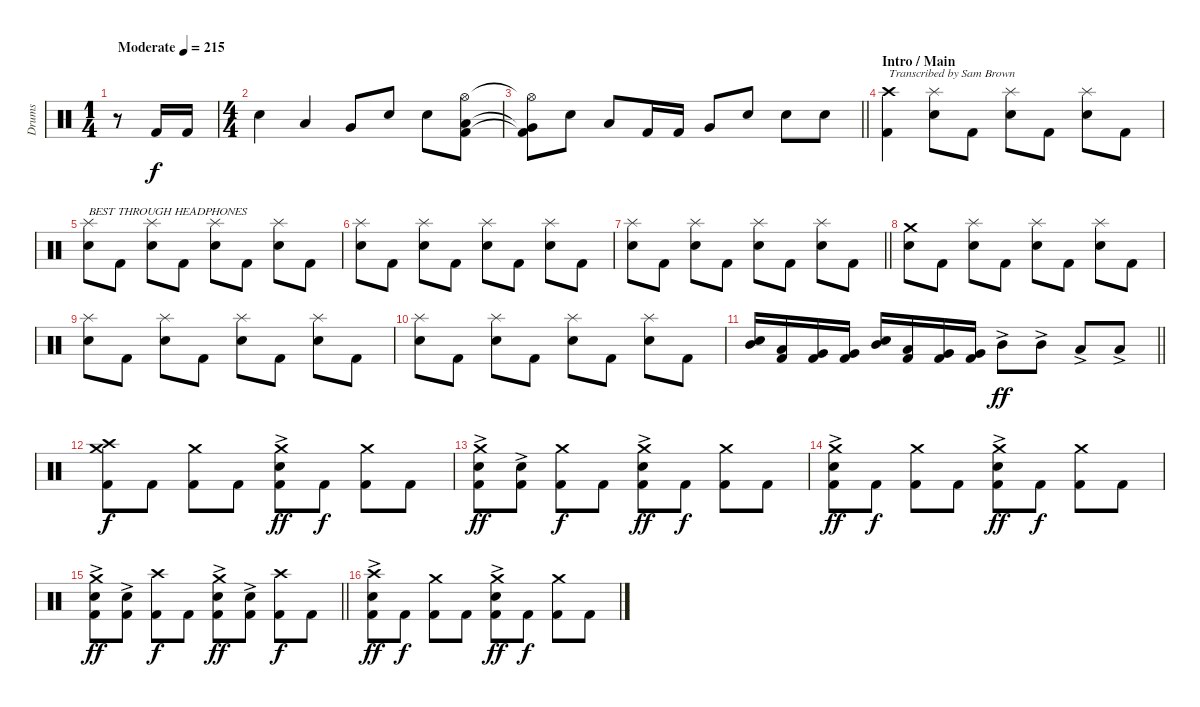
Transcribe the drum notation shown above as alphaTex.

\track ("Drums" "Drums") {instrument percussion}
\staff {score}
\articulation defaults
\ts (1 4)
\tempo (215 "Moderate")
\clef neutral
\ks c
r.8{dy f} "Kick (hit) 2".16 "Kick (hit) 2".16 |
\ts (4 4)
"Snare (hit) 2".4 "Low Tom (hit)".4 "Very Low Tom (hit)".8 "Snare (hit) 2".8 "Snare (hit) 2".8 ("Kick (hit) 2" "Low Floor Tom (hit)" "Hi-Hat (open)").8 |
\barLineRight lightlight
("Kick (hit) 2"{t} "Very Low Tom (hit)"{t} "Hi-Hat (open)"{t}).8 "Snare (hit) 2".8 "Low Tom (hit)".8 "Kick (hit) 2".16 "Kick (hit) 2".16 "Very Low Tom (hit)".8 "Snare (hit) 2".8 "Snare (hit) 2".8 "Snare (hit) 2".8 |
\section ("" "Intro / Main")
("Kick (hit) 2" "Crash high (hit)").4{txt "Transcribed by Sam Brown"} ("Snare (hit) 2" "Splash (hit)").8 "Kick (hit) 2".8 ("Snare (hit) 2" "Splash (hit)").8 "Kick (hit) 2".8 ("Snare (hit) 2" "Splash (hit)").8 "Kick (hit) 2".8 |
("Snare (hit) 2" "Splash (hit)").8{txt "BEST THROUGH HEADPHONES"} "Kick (hit) 2".8 ("Snare (hit) 2" "Splash (hit)").8 "Kick (hit) 2".8 ("Snare (hit) 2" "Splash (hit)").8 "Kick (hit) 2".8 ("Snare (hit) 2" "Splash (hit)").8 "Kick (hit) 2".8 |
("Snare (hit) 2" "Splash (hit)").8 "Kick (hit) 2".8 ("Snare (hit) 2" "Splash (hit)").8 "Kick (hit) 2".8 ("Snare (hit) 2" "Splash (hit)").8 "Kick (hit) 2".8 ("Snare (hit) 2" "Splash (hit)").8 "Kick (hit) 2".8 |
\barLineRight lightlight
("Snare (hit) 2" "Splash (hit)").8 "Kick (hit) 2".8 ("Snare (hit) 2" "Splash (hit)").8 "Kick (hit) 2".8 ("Snare (hit) 2" "Splash (hit)").8 "Kick (hit) 2".8 ("Snare (hit) 2" "Splash (hit)").8 "Kick (hit) 2".8 |
\section ("" "")
("Snare (hit) 2" "Crash medium (hit)").8 "Kick (hit) 2".8 ("Snare (hit) 2" "Splash (hit)").8 "Kick (hit) 2".8 ("Snare (hit) 2" "Splash (hit)").8 "Kick (hit) 2".8 ("Snare (hit) 2" "Splash (hit)").8 "Kick (hit) 2".8 |
("Snare (hit) 2" "Splash (hit)").8 "Kick (hit) 2".8 ("Snare (hit) 2" "Splash (hit)").8 "Kick (hit) 2".8 ("Snare (hit) 2" "Splash (hit)").8 "Kick (hit) 2".8 ("Snare (hit) 2" "Splash (hit)").8 "Kick (hit) 2".8 |
("Snare (hit) 2" "Splash (hit)").8 "Kick (hit) 2".8 ("Snare (hit) 2" "Splash (hit)").8 "Kick (hit) 2".8 ("Snare (hit) 2" "Splash (hit)").8 "Kick (hit) 2".8 ("Snare (hit) 2" "Splash (hit)").8 "Kick (hit) 2".8 |
\barLineRight lightlight
("Snare (hit) 2" "Mid Tom (hit)").16 ("Kick (hit) 2" "Low Tom (hit)").16 ("Kick (hit) 2" "Very Low Tom (hit)").16 ("Kick (hit) 2" "Very Low Tom (hit)").16 ("Snare (hit) 2" "Mid Tom (hit)").16 ("Kick (hit) 2" "Low Tom (hit)").16 ("Kick (hit) 2" "Very Low Tom (hit)").16 ("Kick (hit) 2" "Very Low Tom (hit)").16 "Mid Tom (hit)"{ac}.8{dy ff} "Mid Tom (hit)"{ac}.8 "Low Tom (hit)"{ac}.8 "Low Tom (hit)"{ac}.8 |
\section ("" "")
("Kick (hit) 2" "Crash medium (hit)" "Crash high (hit)").8{dy f} "Kick (hit) 2".8 ("Kick (hit) 2" "Crash medium (hit)").8 "Kick (hit) 2".8 ("Kick (hit) 2" "Snare (hit) 2"{ac} "Crash medium (hit)").8{dy ff} "Kick (hit) 2".8{dy f} ("Kick (hit) 2" "Crash medium (hit)").8 "Kick (hit) 2".8 |
("Kick (hit) 2" "Snare (hit) 2"{ac} "Crash medium (hit)").8{dy ff} ("Kick (hit) 2" "Snare (hit) 2"{ac}).8 ("Kick (hit) 2" "Crash medium (hit)").8{dy f} "Kick (hit) 2".8 ("Kick (hit) 2" "Snare (hit) 2"{ac} "Crash medium (hit)").8{dy ff} "Kick (hit) 2".8{dy f} ("Kick (hit) 2" "Crash medium (hit)").8 "Kick (hit) 2".8 |
("Kick (hit) 2" "Snare (hit) 2"{ac} "Crash medium (hit)").8{dy ff} "Kick (hit) 2".8{dy f} ("Kick (hit) 2" "Crash medium (hit)").8 "Kick (hit) 2".8 ("Kick (hit) 2" "Snare (hit) 2"{ac} "Crash medium (hit)").8{dy ff} "Kick (hit) 2".8{dy f} ("Kick (hit) 2" "Crash medium (hit)").8 "Kick (hit) 2".8 |
\barLineRight lightlight
("Kick (hit) 2" "Snare (hit) 2"{ac} "Crash medium (hit)").8{dy ff} ("Kick (hit) 2" "Snare (hit) 2"{ac}).8 ("Kick (hit) 2" "Crash high (hit)").8{dy f} "Kick (hit) 2".8 ("Kick (hit) 2" "Snare (hit) 2"{ac} "Crash medium (hit)").8{dy ff} ("Kick (hit) 2" "Snare (hit) 2"{ac}).8 ("Kick (hit) 2" "Crash high (hit)").8{dy f} "Kick (hit) 2".8 |
\section ("" "")
("Kick (hit) 2" "Snare (hit) 2"{ac} "Crash high (hit)").8{dy ff} "Kick (hit) 2".8{dy f} ("Kick (hit) 2" "Crash medium (hit)").8 "Kick (hit) 2".8 ("Kick (hit) 2" "Snare (hit) 2"{ac} "Crash medium (hit)").8{dy ff} "Kick (hit) 2".8{dy f} ("Kick (hit) 2" "Crash medium (hit)").8 "Kick (hit) 2".8
